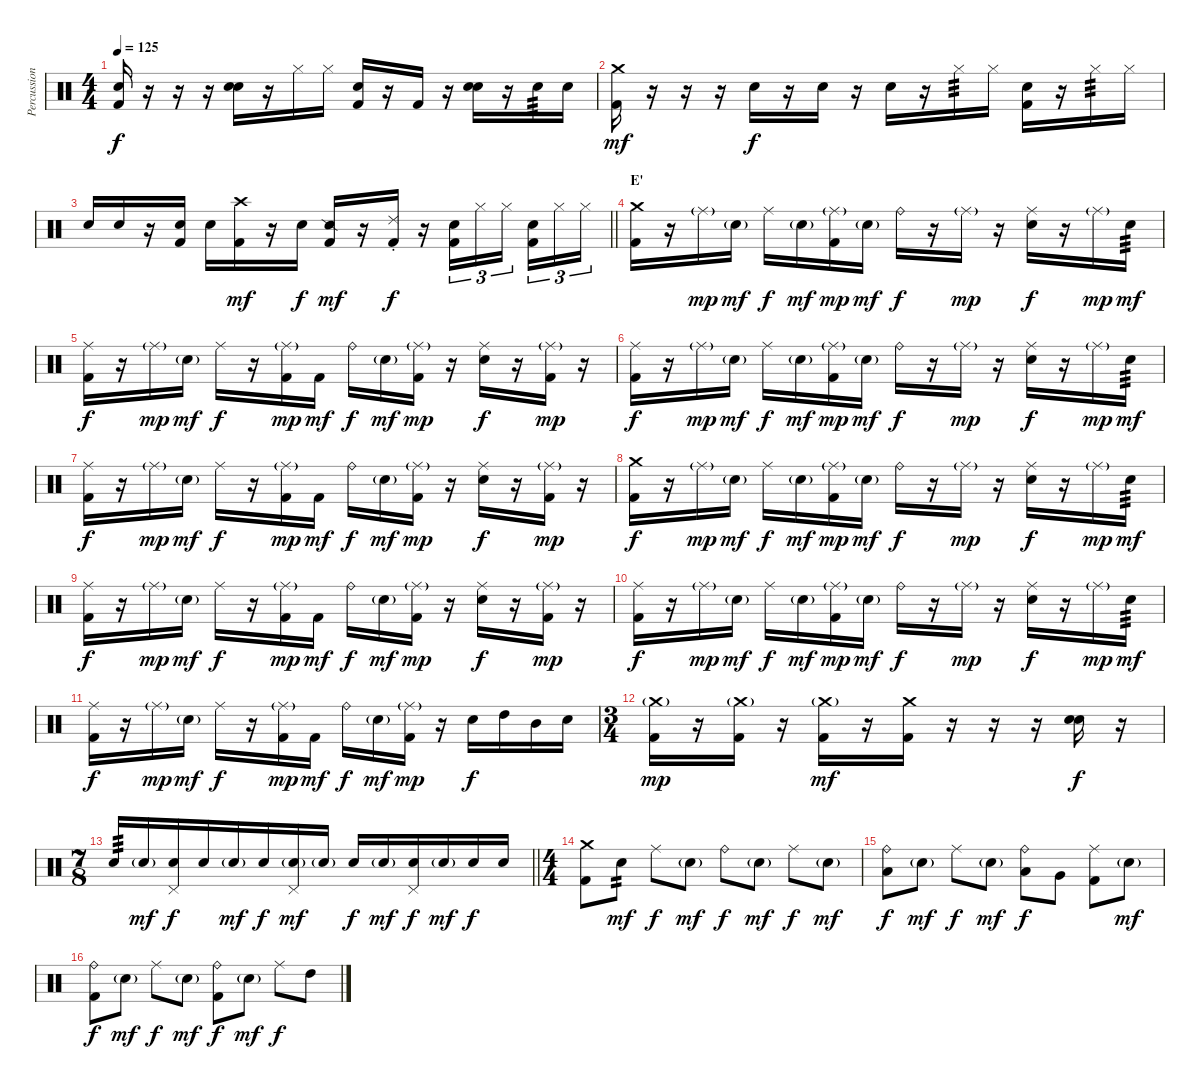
\track ("Percussion" "Percussion") {instrument percussion}
\staff {score}
\articulation defaults
\ts (4 4)
\tempo 125
\clef neutral
\ks c
("Snare (hit)" "Kick (hit) 2").16{dy f} r.16 r.16 r.16 ("Snare (hit)" "Snare (hit) 2").16 r.16 "Hi-Hat (closed)".16 "Hi-Hat (closed)".16 ("Snare (hit)" "Kick (hit) 2").16 r.16 "Kick (hit) 2".16 r.16 ("Snare (hit)" "Snare (hit) 2").16 r.16 "Snare (hit) 2".16{tp 3} "Snare (hit) 2".16 |
("Crash medium (hit)" "Kick (hit) 2").16{dy mf} r.16 r.16 r.16 "Snare (hit)".16{dy f} r.16 "Snare (hit) 2".16 r.16 "Snare (hit)".16 r.16 "Hi-Hat (closed)".16{tp 3} "Hi-Hat (closed)".16 ("Snare (hit)" "Kick (hit) 2").16 r.16 "Hi-Hat (closed)".16{tp 3} "Hi-Hat (closed)".16 |
\barLineRight lightlight "Snare (hit)".16 "Snare (hit)".16
r.16 ("Snare (hit)" "Kick (hit) 2").16 "Snare (hit) 2".16 ("Crash high (hit)" "Kick (hit) 2").16{dy mf} r.16 "Snare (hit) 2".16{dy f} ("Snare (side stick) 2" "Kick (hit) 2").16{dy mf} r.16 ("Ride (choke) 2" "Kick (hit) 2").16{dy f} r.16 ("Snare (hit)" "Kick (hit) 2").16{tu (3 2)} "Hi-Hat (closed)".16{tu (3 2)} "Hi-Hat (closed)".16{tu (3 2) beam splitsecondary} ("Snare (hit)" "Kick (hit) 2").16{tu (3 2)} "Hi-Hat (closed)".16{tu (3 2)} "Hi-Hat (closed)".16{tu (3 2)} |
\section ("" "E'")
("Crash medium (hit)" "Kick (hit) 2").16 r.16 "Ride (middle)"{g}.16{dy mp} "Snare (hit) 2"{g}.16{dy mf} "Ride (middle)".16{dy f} "Snare (hit) 2"{g}.16{dy mf} ("Ride (middle)"{g} "Kick (hit) 2").16{dy mp} "Snare (hit) 2"{g}.16{dy mf} "Ride (bell)".16{dy f} r.16 "Ride (middle)"{g}.16{dy mp} r.16 ("Ride (middle)" "Snare (hit) 2").16{dy f} r.16 "Ride (middle)"{g}.16{dy mp} "Snare (hit) 2".16{tp 3 dy mf} |
("Ride (middle)" "Kick (hit) 2").16{dy f} r.16 "Ride (middle)"{g}.16{dy mp} "Snare (hit) 2"{g}.16{dy mf} "Ride (middle)".16{dy f} r.16 ("Ride (middle)"{g} "Kick (hit) 2").16{dy mp} "Kick (hit) 2".16{dy mf} "Ride (bell)".16{dy f} "Snare (hit) 2"{g}.16{dy mf} ("Ride (middle)"{g} "Kick (hit) 2").16{dy mp} r.16 ("Ride (middle)" "Snare (hit) 2").16{dy f} r.16 ("Ride (middle)"{g} "Kick (hit) 2").16{dy mp} r.16 |
("Ride (middle)" "Kick (hit) 2").16{dy f} r.16 "Ride (middle)"{g}.16{dy mp} "Snare (hit) 2"{g}.16{dy mf} "Ride (middle)".16{dy f} "Snare (hit) 2"{g}.16{dy mf} ("Ride (middle)"{g} "Kick (hit) 2").16{dy mp} "Snare (hit) 2"{g}.16{dy mf} "Ride (bell)".16{dy f} r.16 "Ride (middle)"{g}.16{dy mp} r.16 ("Ride (middle)" "Snare (hit) 2").16{dy f} r.16 "Ride (middle)"{g}.16{dy mp} "Snare (hit) 2".16{tp 3 dy mf} |
("Ride (middle)" "Kick (hit) 2").16{dy f} r.16 "Ride (middle)"{g}.16{dy mp} "Snare (hit) 2"{g}.16{dy mf} "Ride (middle)".16{dy f} r.16 ("Ride (middle)"{g} "Kick (hit) 2").16{dy mp} "Kick (hit) 2".16{dy mf} "Ride (bell)".16{dy f} "Snare (hit) 2"{g}.16{dy mf} ("Ride (middle)"{g} "Kick (hit) 2").16{dy mp} r.16 ("Ride (middle)" "Snare (hit) 2").16{dy f} r.16 ("Ride (middle)"{g} "Kick (hit) 2").16{dy mp} r.16 |
("Crash medium (hit)" "Kick (hit) 2").16{dy f} r.16 "Ride (middle)"{g}.16{dy mp} "Snare (hit) 2"{g}.16{dy mf} "Ride (middle)".16{dy f} "Snare (hit) 2"{g}.16{dy mf} ("Ride (middle)"{g} "Kick (hit) 2").16{dy mp} "Snare (hit) 2"{g}.16{dy mf} "Ride (bell)".16{dy f} r.16 "Ride (middle)"{g}.16{dy mp} r.16 ("Ride (middle)" "Snare (hit) 2").16{dy f} r.16 "Ride (middle)"{g}.16{dy mp} "Snare (hit) 2".16{tp 3 dy mf} |
("Ride (middle)" "Kick (hit) 2").16{dy f} r.16 "Ride (middle)"{g}.16{dy mp} "Snare (hit) 2"{g}.16{dy mf} "Ride (middle)".16{dy f} r.16 ("Ride (middle)"{g} "Kick (hit) 2").16{dy mp} "Kick (hit) 2".16{dy mf} "Ride (bell)".16{dy f} "Snare (hit) 2"{g}.16{dy mf} ("Ride (middle)"{g} "Kick (hit) 2").16{dy mp} r.16 ("Ride (middle)" "Snare (hit) 2").16{dy f} r.16 ("Ride (middle)"{g} "Kick (hit) 2").16{dy mp} r.16 |
("Ride (middle)" "Kick (hit) 2").16{dy f} r.16 "Ride (middle)"{g}.16{dy mp} "Snare (hit) 2"{g}.16{dy mf} "Ride (middle)".16{dy f} "Snare (hit) 2"{g}.16{dy mf} ("Ride (middle)"{g} "Kick (hit) 2").16{dy mp} "Snare (hit) 2"{g}.16{dy mf} "Ride (bell)".16{dy f} r.16 "Ride (middle)"{g}.16{dy mp} r.16 ("Ride (middle)" "Snare (hit) 2").16{dy f} r.16 "Ride (middle)"{g}.16{dy mp} "Snare (hit) 2".16{tp 3 dy mf} |
("Ride (middle)" "Kick (hit) 2").16{dy f} r.16 "Ride (middle)"{g}.16{dy mp} "Snare (hit) 2"{g}.16{dy mf} "Ride (middle)".16{dy f} r.16 ("Ride (middle)"{g} "Kick (hit) 2").16{dy mp} "Kick (hit) 2".16{dy mf} "Ride (bell)".16{dy f} "Snare (hit) 2"{g}.16{dy mf} ("Ride (middle)"{g} "Kick (hit) 2").16{dy mp} r.16 "Snare (hit) 2".16{dy f} "High Tom (hit)".16 "Mid Tom (hit)".16 "Snare (hit) 2".16 |
\ts (3 4)
("Crash medium (hit)"{g} "Kick (hit) 2").16{dy mp} r.16 ("Crash medium (hit)"{g} "Kick (hit) 2").16 r.16 ("Crash medium (hit)"{g} "Kick (hit) 2").16{dy mf} r.16 ("Crash medium (hit)" "Kick (hit) 2").16 r.16 r.16 r.16 ("Snare (hit)" "Snare (hit) 2").16{dy f} r.16 |
\ts (7 8)
\barLineRight lightlight "Snare (hit) 2".16{tp 3} "Snare (hit) 2"{g}.16{dy mf}
("Pedal Hi-Hat (hit)" "Snare (hit) 2").16{dy f} "Snare (hit) 2".16 "Snare (hit) 2"{g}.16{dy mf} "Snare (hit) 2".16{dy f} ("Pedal Hi-Hat (hit)" "Snare (hit) 2"{g}).16{dy mf} "Snare (hit) 2"{g}.16 "Snare (hit) 2".16{dy f} "Snare (hit) 2"{g}.16{dy mf} ("Pedal Hi-Hat (hit)" "Snare (hit) 2").16{dy f} "Snare (hit) 2"{g}.16{dy mf} "Snare (hit) 2".16{dy f} "Snare (hit) 2".16 |
\ts (4 4)
\section ("" "")
("Crash medium (hit)" "Kick (hit) 2").8 "Snare (hit) 2".8{tp 2 dy mf} "Ride (middle)".8{dy f} "Snare (hit) 2"{g}.8{dy mf} "Ride (bell)".8{dy f} "Snare (hit) 2"{g}.8{dy mf} "Ride (middle)".8{dy f} "Snare (hit) 2"{g}.8{dy mf} |
("Ride (bell)" "Low Tom (hit)").8{dy f} "Snare (hit) 2"{g}.8{dy mf} "Ride (middle)".8{dy f} "Snare (hit) 2"{g}.8{dy mf} ("Ride (bell)" "Low Tom (hit)").8{dy f} "Very Low Tom (hit)".8 ("Ride (middle)" "Kick (hit) 2").8 "Snare (hit) 2"{g}.8{dy mf} |
("Ride (bell)" "Kick (hit) 2").8{dy f} "Snare (hit) 2"{g}.8{dy mf} "Ride (middle)".8{dy f} "Snare (hit) 2"{g}.8{dy mf} ("Ride (bell)" "Kick (hit) 2").8{dy f} "Snare (hit) 2"{g}.8{dy mf} "Ride (middle)".8{dy f} "High Tom (hit)".8
